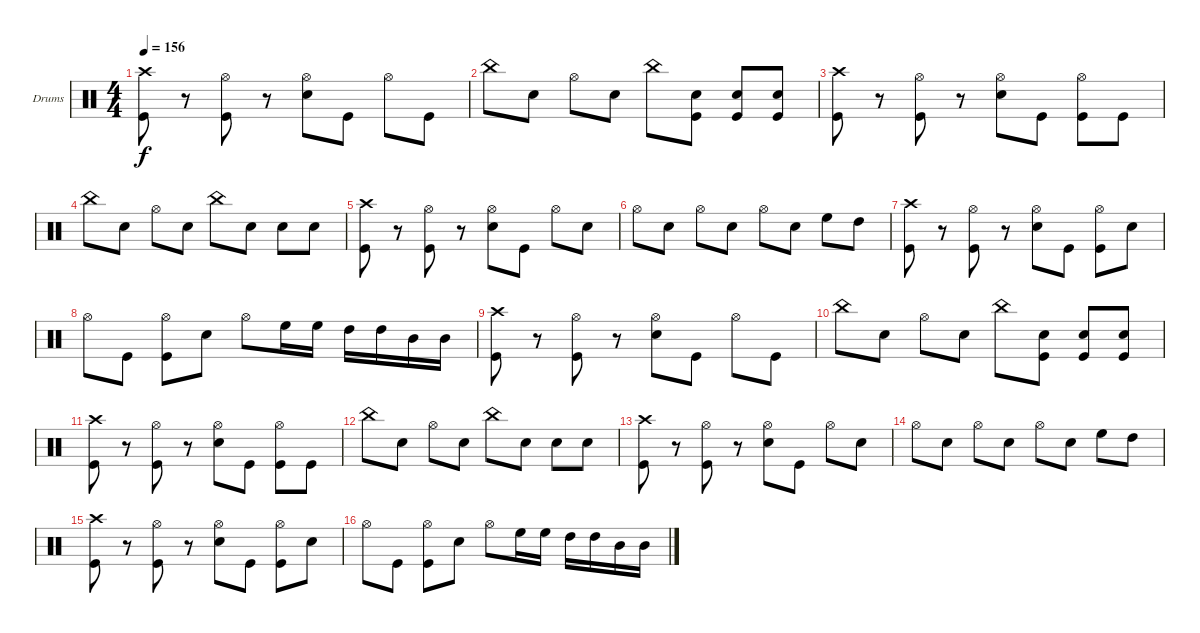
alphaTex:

\defaultSystemsLayout 4
\bracketExtendMode groupsimilarinstruments
\firstSystemTrackNameOrientation horizontal
\otherSystemsTrackNameOrientation horizontal
\track ("Anton Kubrak" "Drums") {instrument percussion}
\staff {score}
\articulation defaults
\ts (4 4)
\tempo 156
\clef neutral
\scale
0.333333
\ks c
("Crash high (hit)" "Kick (hit)").8{dy f} r.8 ("Hi-Hat (open)" "Kick (hit)").8 r.8 ("Hi-Hat (open)" "Snare (hit) 2").8 "Kick (hit)".8 "Hi-Hat (open)".8 "Kick (hit)".8 |
\scale
0.333333 "China (hit)".8 "Snare (hit) 2".8 "Hi-Hat (open)".8 "Snare (hit) 2".8 "China (hit)".8 ("Snare (hit) 2" "Kick (hit)").8 ("Snare (hit) 2" "Kick (hit)").8 ("Snare (hit) 2" "Kick (hit)").8 |
\scale
0.333333 ("Crash high (hit)" "Kick (hit)").8 r.8 ("Hi-Hat (open)" "Kick (hit)").8 r.8 ("Hi-Hat (open)" "Snare (hit) 2").8 "Kick (hit)".8 ("Hi-Hat (open)" "Kick (hit)").8 "Kick (hit)".8 |
\scale
0.333333 "China (hit)".8 "Snare (hit) 2".8 "Hi-Hat (open)".8 "Snare (hit) 2".8 "China (hit)".8 "Snare (hit) 2".8 "Snare (hit) 2".8 "Snare (hit) 2".8 |
\scale
0.333333 ("Crash high (hit)" "Kick (hit)").8 r.8 ("Hi-Hat (open)" "Kick (hit)").8 r.8 ("Hi-Hat (open)" "Snare (hit) 2").8 "Kick (hit)".8 "Hi-Hat (open)".8 "Snare (hit) 2".8 |
\scale
0.333333 "Hi-Hat (open)".8 "Snare (hit) 2".8 "Hi-Hat (open)".8 "Snare (hit) 2".8 "Hi-Hat (open)".8 "Snare (hit) 2".8 "High Floor Tom (hit)".8 "High Tom (hit)".8 |
\scale
0.333333 ("Crash high (hit)" "Kick (hit)").8 r.8 ("Hi-Hat (open)" "Kick (hit)").8 r.8 ("Hi-Hat (open)" "Snare (hit) 2").8 "Kick (hit)".8 ("Hi-Hat (open)" "Kick (hit)").8 "Snare (hit) 2".8 |
\scale
0.333333 "Hi-Hat (open)".8 "Kick (hit)".8 ("Hi-Hat (open)" "Kick (hit)").8 "Snare (hit) 2".8 "Hi-Hat (open)".8 "High Floor Tom (hit)".16 "High Floor Tom (hit)".16 "High Tom (hit)".16 "High Tom (hit)".16 "Mid Tom (hit)".16 "Mid Tom (hit)".16 |
\scale
0.333333 ("Crash high (hit)" "Kick (hit)").8 r.8 ("Hi-Hat (open)" "Kick (hit)").8 r.8 ("Hi-Hat (open)" "Snare (hit) 2").8 "Kick (hit)".8 "Hi-Hat (open)".8 "Kick (hit)".8 |
\scale
0.333333 "China (hit)".8 "Snare (hit) 2".8 "Hi-Hat (open)".8 "Snare (hit) 2".8 "China (hit)".8 ("Snare (hit) 2" "Kick (hit)").8 ("Snare (hit) 2" "Kick (hit)").8 ("Snare (hit) 2" "Kick (hit)").8 |
\scale
0.333333 ("Crash high (hit)" "Kick (hit)").8 r.8 ("Hi-Hat (open)" "Kick (hit)").8 r.8 ("Hi-Hat (open)" "Snare (hit) 2").8 "Kick (hit)".8 ("Hi-Hat (open)" "Kick (hit)").8 "Kick (hit)".8 |
\scale
0.333333 "China (hit)".8 "Snare (hit) 2".8 "Hi-Hat (open)".8 "Snare (hit) 2".8 "China (hit)".8 "Snare (hit) 2".8 "Snare (hit) 2".8 "Snare (hit) 2".8 |
\scale
0.333333 ("Crash high (hit)" "Kick (hit)").8 r.8 ("Hi-Hat (open)" "Kick (hit)").8 r.8 ("Hi-Hat (open)" "Snare (hit) 2").8 "Kick (hit)".8 "Hi-Hat (open)".8 "Snare (hit) 2".8 |
\scale
0.333333 "Hi-Hat (open)".8 "Snare (hit) 2".8 "Hi-Hat (open)".8 "Snare (hit) 2".8 "Hi-Hat (open)".8 "Snare (hit) 2".8 "High Floor Tom (hit)".8 "High Tom (hit)".8 |
\scale
0.333333 ("Crash high (hit)" "Kick (hit)").8 r.8 ("Hi-Hat (open)" "Kick (hit)").8 r.8 ("Hi-Hat (open)" "Snare (hit) 2").8 "Kick (hit)".8 ("Hi-Hat (open)" "Kick (hit)").8 "Snare (hit) 2".8 |
\scale
0.333333 "Hi-Hat (open)".8 "Kick (hit)".8 ("Hi-Hat (open)" "Kick (hit)").8 "Snare (hit) 2".8 "Hi-Hat (open)".8 "High Floor Tom (hit)".16 "High Floor Tom (hit)".16 "High Tom (hit)".16 "High Tom (hit)".16 "Mid Tom (hit)".16 "Mid Tom (hit)".16
